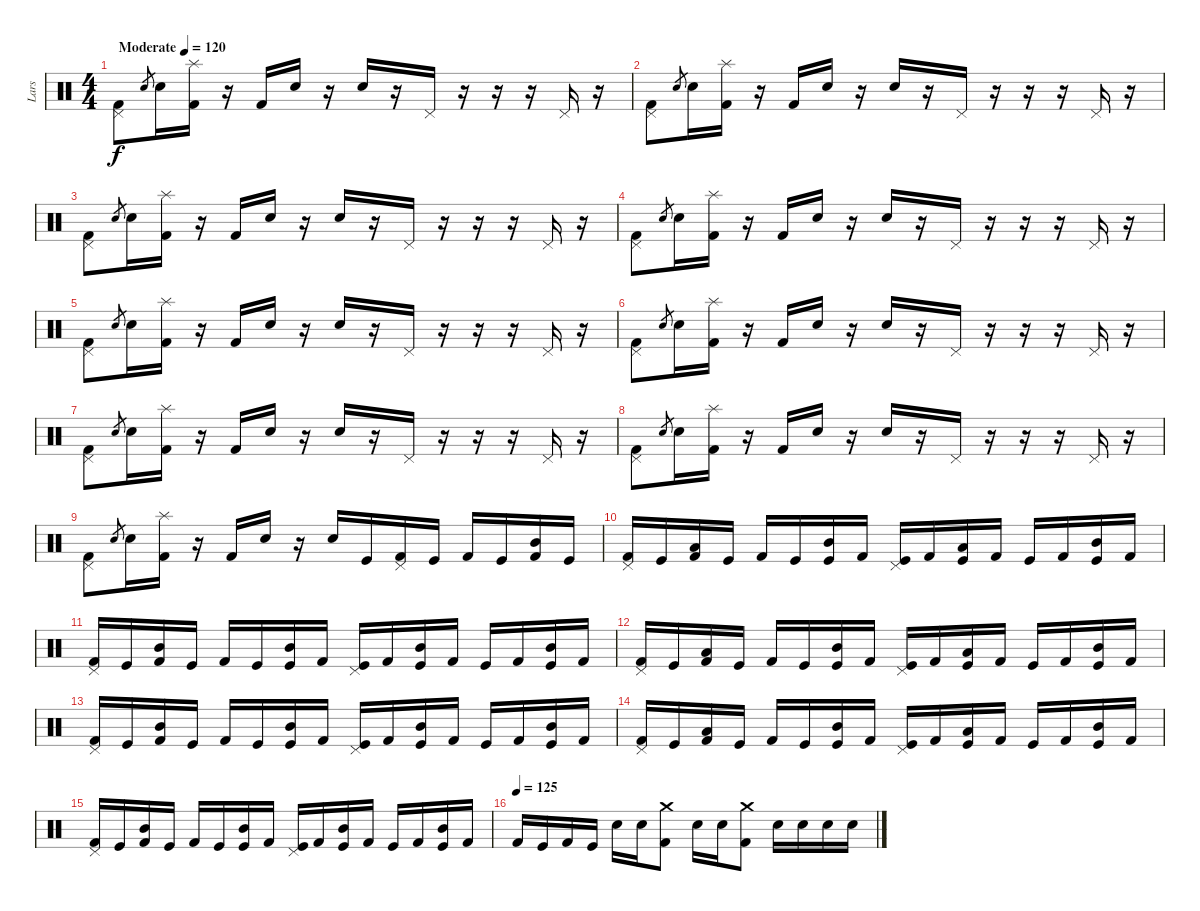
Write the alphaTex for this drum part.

\track ("Lars" "Lars") {instrument percussion}
\staff {score}
\articulation defaults
\ts (4 4)
\tempo (120 "Moderate")
\clef neutral
\ks c
("Pedal Hi-Hat (hit)" "Kick (hit) 2").8{dy f} "Snare (hit) 2".8{gr} "Snare (hit) 2".16 ("Splash (hit)" "Kick (hit) 2").16 r.16 "Kick (hit) 2".16 "Snare (hit) 2".16 r.16 "Snare (hit) 2".16 r.16 "Pedal Hi-Hat (hit)".16 r.16 r.16 r.16 "Pedal Hi-Hat (hit)".16 r.16 |
("Pedal Hi-Hat (hit)" "Kick (hit) 2").8 "Snare (hit) 2".8{gr} "Snare (hit) 2".16 ("Splash (hit)" "Kick (hit) 2").16 r.16 "Kick (hit) 2".16 "Snare (hit) 2".16 r.16 "Snare (hit) 2".16 r.16 "Pedal Hi-Hat (hit)".16 r.16 r.16 r.16 "Pedal Hi-Hat (hit)".16 r.16 |
("Pedal Hi-Hat (hit)" "Kick (hit) 2").8 "Snare (hit) 2".8{gr} "Snare (hit) 2".16 ("Splash (hit)" "Kick (hit) 2").16 r.16 "Kick (hit) 2".16 "Snare (hit) 2".16 r.16 "Snare (hit) 2".16 r.16 "Pedal Hi-Hat (hit)".16 r.16 r.16 r.16 "Pedal Hi-Hat (hit)".16 r.16 |
("Pedal Hi-Hat (hit)" "Kick (hit) 2").8 "Snare (hit) 2".8{gr} "Snare (hit) 2".16 ("Splash (hit)" "Kick (hit) 2").16 r.16 "Kick (hit) 2".16 "Snare (hit) 2".16 r.16 "Snare (hit) 2".16 r.16 "Pedal Hi-Hat (hit)".16 r.16 r.16 r.16 "Pedal Hi-Hat (hit)".16 r.16 |
("Pedal Hi-Hat (hit)" "Kick (hit) 2").8 "Snare (hit) 2".8{gr} "Snare (hit) 2".16 ("Splash (hit)" "Kick (hit) 2").16 r.16 "Kick (hit) 2".16 "Snare (hit) 2".16 r.16 "Snare (hit) 2".16 r.16 "Pedal Hi-Hat (hit)".16 r.16 r.16 r.16 "Pedal Hi-Hat (hit)".16 r.16 |
("Pedal Hi-Hat (hit)" "Kick (hit) 2").8 "Snare (hit) 2".8{gr} "Snare (hit) 2".16 ("Splash (hit)" "Kick (hit) 2").16 r.16 "Kick (hit) 2".16 "Snare (hit) 2".16 r.16 "Snare (hit) 2".16 r.16 "Pedal Hi-Hat (hit)".16 r.16 r.16 r.16 "Pedal Hi-Hat (hit)".16 r.16 |
("Pedal Hi-Hat (hit)" "Kick (hit) 2").8 "Snare (hit) 2".8{gr} "Snare (hit) 2".16 ("Splash (hit)" "Kick (hit) 2").16 r.16 "Kick (hit) 2".16 "Snare (hit) 2".16 r.16 "Snare (hit) 2".16 r.16 "Pedal Hi-Hat (hit)".16 r.16 r.16 r.16 "Pedal Hi-Hat (hit)".16 r.16 |
("Pedal Hi-Hat (hit)" "Kick (hit) 2").8 "Snare (hit) 2".8{gr} "Snare (hit) 2".16 ("Splash (hit)" "Kick (hit) 2").16 r.16 "Kick (hit) 2".16 "Snare (hit) 2".16 r.16 "Snare (hit) 2".16 r.16 "Pedal Hi-Hat (hit)".16 r.16 r.16 r.16 "Pedal Hi-Hat (hit)".16 r.16 |
("Pedal Hi-Hat (hit)" "Kick (hit) 2").8 "Snare (hit) 2".8{gr} "Snare (hit) 2".16 ("Splash (hit)" "Kick (hit) 2").16 r.16 "Kick (hit) 2".16 "Snare (hit) 2".16 r.16 "Snare (hit) 2".16 "Kick (hit)".16 ("Pedal Hi-Hat (hit)" "Kick (hit) 2").16 "Kick (hit)".16 "Kick (hit) 2".16 "Kick (hit)".16 ("Mid Tom (hit)" "Kick (hit) 2").16 "Kick (hit)".16 |
("Pedal Hi-Hat (hit)" "Kick (hit) 2").16 "Kick (hit)".16 ("Low Tom (hit)" "Kick (hit) 2").16 "Kick (hit)".16 "Kick (hit) 2".16 "Kick (hit)".16 ("Mid Tom (hit)" "Kick (hit)").16 "Kick (hit) 2".16 ("Pedal Hi-Hat (hit)" "Kick (hit)").16 "Kick (hit) 2".16 ("Low Tom (hit)" "Kick (hit)").16 "Kick (hit) 2".16 "Kick (hit)".16 "Kick (hit) 2".16 ("Mid Tom (hit)" "Kick (hit)").16 "Kick (hit) 2".16 |
("Pedal Hi-Hat (hit)" "Kick (hit) 2").16 "Kick (hit)".16 ("Mid Tom (hit)" "Kick (hit) 2").16 "Kick (hit)".16 "Kick (hit) 2".16 "Kick (hit)".16 ("Mid Tom (hit)" "Kick (hit)").16 "Kick (hit) 2".16 ("Pedal Hi-Hat (hit)" "Kick (hit)").16 "Kick (hit) 2".16 ("Mid Tom (hit)" "Kick (hit)").16 "Kick (hit) 2".16 "Kick (hit)".16 "Kick (hit) 2".16 ("Mid Tom (hit)" "Kick (hit)").16 "Kick (hit) 2".16 |
("Pedal Hi-Hat (hit)" "Kick (hit) 2").16 "Kick (hit)".16 ("Low Tom (hit)" "Kick (hit) 2").16 "Kick (hit)".16 "Kick (hit) 2".16 "Kick (hit)".16 ("Mid Tom (hit)" "Kick (hit)").16 "Kick (hit) 2".16 ("Pedal Hi-Hat (hit)" "Kick (hit)").16 "Kick (hit) 2".16 ("Low Tom (hit)" "Kick (hit)").16 "Kick (hit) 2".16 "Kick (hit)".16 "Kick (hit) 2".16 ("Mid Tom (hit)" "Kick (hit)").16 "Kick (hit) 2".16 |
("Pedal Hi-Hat (hit)" "Kick (hit) 2").16 "Kick (hit)".16 ("Mid Tom (hit)" "Kick (hit) 2").16 "Kick (hit)".16 "Kick (hit) 2".16 "Kick (hit)".16 ("Mid Tom (hit)" "Kick (hit)").16 "Kick (hit) 2".16 ("Pedal Hi-Hat (hit)" "Kick (hit)").16 "Kick (hit) 2".16 ("Mid Tom (hit)" "Kick (hit)").16 "Kick (hit) 2".16 "Kick (hit)".16 "Kick (hit) 2".16 ("Mid Tom (hit)" "Kick (hit)").16 "Kick (hit) 2".16 |
("Pedal Hi-Hat (hit)" "Kick (hit) 2").16 "Kick (hit)".16 ("Low Tom (hit)" "Kick (hit) 2").16 "Kick (hit)".16 "Kick (hit) 2".16 "Kick (hit)".16 ("Mid Tom (hit)" "Kick (hit)").16 "Kick (hit) 2".16 ("Pedal Hi-Hat (hit)" "Kick (hit)").16 "Kick (hit) 2".16 ("Low Tom (hit)" "Kick (hit)").16 "Kick (hit) 2".16 "Kick (hit)".16 "Kick (hit) 2".16 ("Mid Tom (hit)" "Kick (hit)").16 "Kick (hit) 2".16 |
("Pedal Hi-Hat (hit)" "Kick (hit) 2").16 "Kick (hit)".16 ("Mid Tom (hit)" "Kick (hit) 2").16 "Kick (hit)".16 "Kick (hit) 2".16 "Kick (hit)".16 ("Mid Tom (hit)" "Kick (hit)").16 "Kick (hit) 2".16 ("Pedal Hi-Hat (hit)" "Kick (hit)").16 "Kick (hit) 2".16 ("Mid Tom (hit)" "Kick (hit)").16 "Kick (hit) 2".16 "Kick (hit)".16 "Kick (hit) 2".16 ("Mid Tom (hit)" "Kick (hit)").16 "Kick (hit) 2".16 |
\tempo (125)
"Kick (hit) 2".16 "Kick (hit)".16 "Kick (hit) 2".16 "Kick (hit)".16 "Snare (hit) 2".16 "Snare (hit) 2".16 ("Crash medium (hit)" "Kick (hit) 2").8 "Snare (hit) 2".16 "Snare (hit) 2".16 ("Crash medium (hit)" "Kick (hit) 2").8 "Snare (hit) 2".16 "Snare (hit) 2".16 "Snare (hit) 2".16 "Snare (hit) 2".16
